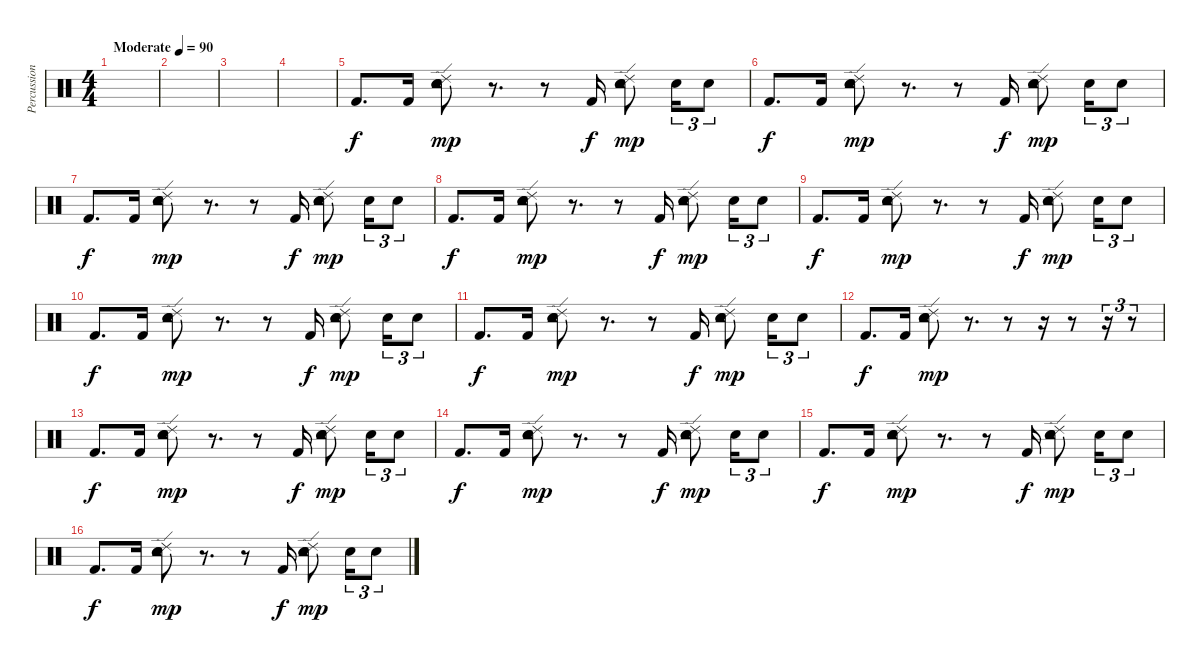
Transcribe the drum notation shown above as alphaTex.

\track ("Percussion" "Percussion") {instrument percussion}
\staff {score}
\articulation defaults
\ts (4 4)
\tempo (90 "Moderate")
\clef neutral
\ks c
|
|
|
|
"Kick (hit) 2".8{d} "Kick (hit) 2".16 ("Ride (edge) 2" "Tambourine (hit)" "Electric Snare (hit)" "Snare (hit) 2").8{dy mp} r.8{d} r.8 "Kick (hit) 2".16{dy f} ("Ride (edge) 2" "Tambourine (hit)" "Electric Snare (hit)" "Snare (hit) 2").8{dy mp} "Electric Snare (hit)".16{tu (3 2)} "Electric Snare (hit)".8{tu (3 2)} |
"Kick (hit) 2".8{d dy f} "Kick (hit) 2".16 ("Ride (edge) 2" "Tambourine (hit)" "Electric Snare (hit)" "Snare (hit) 2").8{dy mp} r.8{d} r.8 "Kick (hit) 2".16{dy f} ("Ride (edge) 2" "Tambourine (hit)" "Electric Snare (hit)" "Snare (hit) 2").8{dy mp} "Electric Snare (hit)".16{tu (3 2)} "Electric Snare (hit)".8{tu (3 2)} |
"Kick (hit) 2".8{d dy f} "Kick (hit) 2".16 ("Ride (edge) 2" "Tambourine (hit)" "Electric Snare (hit)" "Snare (hit) 2").8{dy mp} r.8{d} r.8 "Kick (hit) 2".16{dy f} ("Ride (edge) 2" "Tambourine (hit)" "Electric Snare (hit)" "Snare (hit) 2").8{dy mp} "Electric Snare (hit)".16{tu (3 2)} "Electric Snare (hit)".8{tu (3 2)} |
"Kick (hit) 2".8{d dy f} "Kick (hit) 2".16 ("Ride (edge) 2" "Tambourine (hit)" "Electric Snare (hit)" "Snare (hit) 2").8{dy mp} r.8{d} r.8 "Kick (hit) 2".16{dy f} ("Ride (edge) 2" "Tambourine (hit)" "Electric Snare (hit)" "Snare (hit) 2").8{dy mp} "Electric Snare (hit)".16{tu (3 2)} "Electric Snare (hit)".8{tu (3 2)} |
"Kick (hit) 2".8{d dy f} "Kick (hit) 2".16 ("Ride (edge) 2" "Tambourine (hit)" "Electric Snare (hit)" "Snare (hit) 2").8{dy mp} r.8{d} r.8 "Kick (hit) 2".16{dy f} ("Ride (edge) 2" "Tambourine (hit)" "Electric Snare (hit)" "Snare (hit) 2").8{dy mp} "Electric Snare (hit)".16{tu (3 2)} "Electric Snare (hit)".8{tu (3 2)} |
"Kick (hit) 2".8{d dy f} "Kick (hit) 2".16 ("Ride (edge) 2" "Tambourine (hit)" "Electric Snare (hit)" "Snare (hit) 2").8{dy mp} r.8{d} r.8 "Kick (hit) 2".16{dy f} ("Ride (edge) 2" "Tambourine (hit)" "Electric Snare (hit)" "Snare (hit) 2").8{dy mp} "Electric Snare (hit)".16{tu (3 2)} "Electric Snare (hit)".8{tu (3 2)} |
"Kick (hit) 2".8{d dy f} "Kick (hit) 2".16 ("Ride (edge) 2" "Tambourine (hit)" "Electric Snare (hit)" "Snare (hit) 2").8{dy mp} r.8{d} r.8 "Kick (hit) 2".16{dy f} ("Ride (edge) 2" "Tambourine (hit)" "Electric Snare (hit)" "Snare (hit) 2").8{dy mp} "Electric Snare (hit)".16{tu (3 2)} "Electric Snare (hit)".8{tu (3 2)} |
"Kick (hit) 2".8{d dy f} "Kick (hit) 2".16 ("Ride (edge) 2" "Tambourine (hit)" "Electric Snare (hit)" "Snare (hit) 2").8{dy mp} r.8{d} r.8 r.16 r.8 r.16{tu (3 2)} r.8{tu (3 2)} |
"Kick (hit) 2".8{d dy f} "Kick (hit) 2".16 ("Ride (edge) 2" "Tambourine (hit)" "Electric Snare (hit)" "Snare (hit) 2").8{dy mp} r.8{d} r.8 "Kick (hit) 2".16{dy f} ("Ride (edge) 2" "Tambourine (hit)" "Electric Snare (hit)" "Snare (hit) 2").8{dy mp} "Electric Snare (hit)".16{tu (3 2)} "Electric Snare (hit)".8{tu (3 2)} |
"Kick (hit) 2".8{d dy f} "Kick (hit) 2".16 ("Ride (edge) 2" "Tambourine (hit)" "Electric Snare (hit)" "Snare (hit) 2").8{dy mp} r.8{d} r.8 "Kick (hit) 2".16{dy f} ("Ride (edge) 2" "Tambourine (hit)" "Electric Snare (hit)" "Snare (hit) 2").8{dy mp} "Electric Snare (hit)".16{tu (3 2)} "Electric Snare (hit)".8{tu (3 2)} |
"Kick (hit) 2".8{d dy f} "Kick (hit) 2".16 ("Ride (edge) 2" "Tambourine (hit)" "Electric Snare (hit)" "Snare (hit) 2").8{dy mp} r.8{d} r.8 "Kick (hit) 2".16{dy f} ("Ride (edge) 2" "Tambourine (hit)" "Electric Snare (hit)" "Snare (hit) 2").8{dy mp} "Electric Snare (hit)".16{tu (3 2)} "Electric Snare (hit)".8{tu (3 2)} |
"Kick (hit) 2".8{d dy f} "Kick (hit) 2".16 ("Ride (edge) 2" "Tambourine (hit)" "Electric Snare (hit)" "Snare (hit) 2").8{dy mp} r.8{d} r.8 "Kick (hit) 2".16{dy f} ("Ride (edge) 2" "Tambourine (hit)" "Electric Snare (hit)" "Snare (hit) 2").8{dy mp} "Electric Snare (hit)".16{tu (3 2)} "Electric Snare (hit)".8{tu (3 2)}
